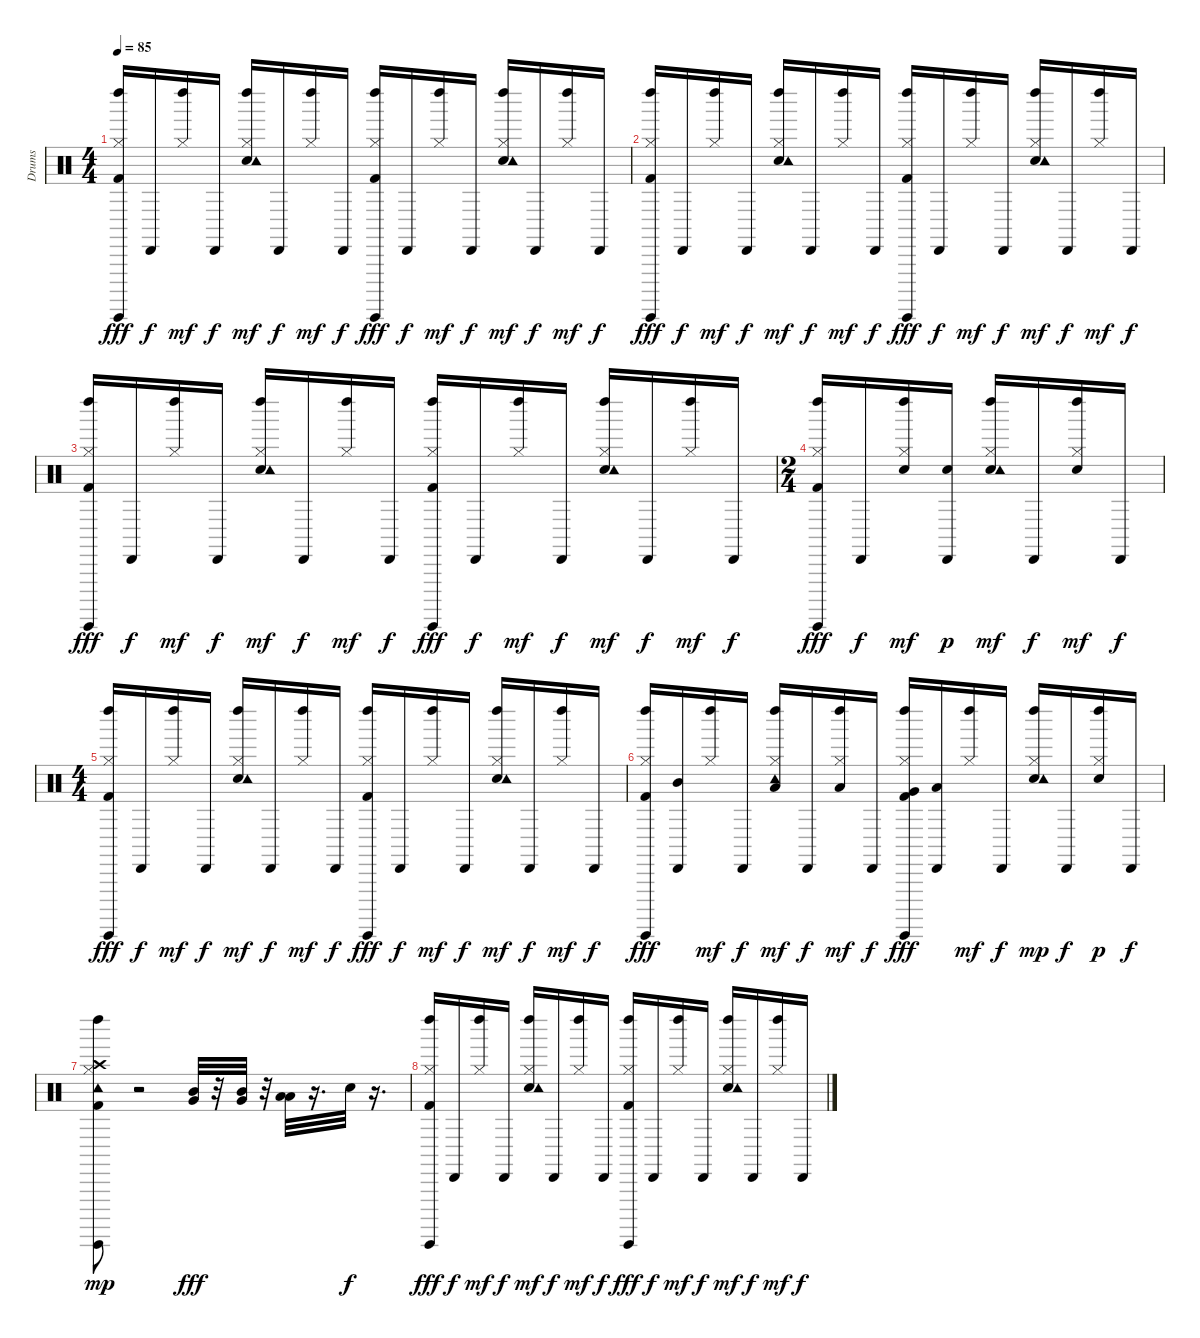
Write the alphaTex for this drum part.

\track ("Drums" "Drums") {instrument percussion}
\staff {score}
\articulation defaults
\ts (4 4)
\tempo 85
\clef neutral
\ks c
("Hi-Hat (closed)" "Kick (hit) 2" "Guiro (hit)" "Left Maraca (hit)").16{dy fff} "Cabasa (hit)".16{dy f} ("Hi-Hat (closed)" "Left Maraca (hit)").16{dy mf} "Cabasa (hit)".16{dy f} ("Hi-Hat (closed)" "Electric Snare (hit)" "Left Maraca (hit)" "Tambourine (hit)").16{dy mf} "Cabasa (hit)".16{dy f} ("Hi-Hat (closed)" "Left Maraca (hit)").16{dy mf} "Cabasa (hit)".16{dy f} ("Hi-Hat (closed)" "Kick (hit) 2" "Guiro (hit)" "Left Maraca (hit)").16{dy fff} "Cabasa (hit)".16{dy f} ("Hi-Hat (closed)" "Left Maraca (hit)").16{dy mf} "Cabasa (hit)".16{dy f} ("Hi-Hat (closed)" "Electric Snare (hit)" "Left Maraca (hit)" "Tambourine (hit)").16{dy mf} "Cabasa (hit)".16{dy f} ("Hi-Hat (closed)" "Left Maraca (hit)").16{dy mf} "Cabasa (hit)".16{dy f} |
("Hi-Hat (closed)" "Kick (hit) 2" "Guiro (hit)" "Left Maraca (hit)").16{dy fff} "Cabasa (hit)".16{dy f} ("Hi-Hat (closed)" "Left Maraca (hit)").16{dy mf} "Cabasa (hit)".16{dy f} ("Hi-Hat (closed)" "Electric Snare (hit)" "Left Maraca (hit)" "Tambourine (hit)").16{dy mf} "Cabasa (hit)".16{dy f} ("Hi-Hat (closed)" "Left Maraca (hit)").16{dy mf} "Cabasa (hit)".16{dy f} ("Hi-Hat (closed)" "Kick (hit) 2" "Guiro (hit)" "Left Maraca (hit)").16{dy fff} "Cabasa (hit)".16{dy f} ("Hi-Hat (closed)" "Left Maraca (hit)").16{dy mf} "Cabasa (hit)".16{dy f} ("Hi-Hat (closed)" "Electric Snare (hit)" "Left Maraca (hit)" "Tambourine (hit)").16{dy mf} "Cabasa (hit)".16{dy f} ("Hi-Hat (closed)" "Left Maraca (hit)").16{dy mf} "Cabasa (hit)".16{dy f} |
("Hi-Hat (closed)" "Kick (hit) 2" "Guiro (hit)" "Left Maraca (hit)").16{dy fff} "Cabasa (hit)".16{dy f} ("Hi-Hat (closed)" "Left Maraca (hit)").16{dy mf} "Cabasa (hit)".16{dy f} ("Hi-Hat (closed)" "Electric Snare (hit)" "Left Maraca (hit)" "Tambourine (hit)").16{dy mf} "Cabasa (hit)".16{dy f} ("Hi-Hat (closed)" "Left Maraca (hit)").16{dy mf} "Cabasa (hit)".16{dy f} ("Hi-Hat (closed)" "Kick (hit) 2" "Guiro (hit)" "Left Maraca (hit)").16{dy fff} "Cabasa (hit)".16{dy f} ("Hi-Hat (closed)" "Left Maraca (hit)").16{dy mf} "Cabasa (hit)".16{dy f} ("Hi-Hat (closed)" "Electric Snare (hit)" "Left Maraca (hit)" "Tambourine (hit)").16{dy mf} "Cabasa (hit)".16{dy f} ("Hi-Hat (closed)" "Left Maraca (hit)").16{dy mf} "Cabasa (hit)".16{dy f} |
\ts (2 4)
("Hi-Hat (closed)" "Kick (hit) 2" "Guiro (hit)" "Left Maraca (hit)").16{dy fff} "Cabasa (hit)".16{dy f} ("Snare (hit) 2" "Hi-Hat (closed)" "Left Maraca (hit)").16{dy mf} ("Electric Snare (hit)" "Cabasa (hit)").16{dy p} ("Hi-Hat (closed)" "Electric Snare (hit)" "Left Maraca (hit)" "Tambourine (hit)").16{dy mf} "Cabasa (hit)".16{dy f} ("Snare (hit) 2" "Hi-Hat (closed)" "Left Maraca (hit)").16{dy mf} "Cabasa (hit)".16{dy f} |
\ts (4 4)
("Hi-Hat (closed)" "Kick (hit) 2" "Guiro (hit)" "Left Maraca (hit)").16{dy fff} "Cabasa (hit)".16{dy f} ("Hi-Hat (closed)" "Left Maraca (hit)").16{dy mf} "Cabasa (hit)".16{dy f} ("Hi-Hat (closed)" "Electric Snare (hit)" "Left Maraca (hit)" "Tambourine (hit)").16{dy mf} "Cabasa (hit)".16{dy f} ("Hi-Hat (closed)" "Left Maraca (hit)").16{dy mf} "Cabasa (hit)".16{dy f} ("Hi-Hat (closed)" "Kick (hit) 2" "Guiro (hit)" "Left Maraca (hit)").16{dy fff} "Cabasa (hit)".16{dy f} ("Hi-Hat (closed)" "Left Maraca (hit)").16{dy mf} "Cabasa (hit)".16{dy f} ("Hi-Hat (closed)" "Electric Snare (hit)" "Left Maraca (hit)" "Tambourine (hit)").16{dy mf} "Cabasa (hit)".16{dy f} ("Hi-Hat (closed)" "Left Maraca (hit)").16{dy mf} "Cabasa (hit)".16{dy f} |
("Hi-Hat (closed)" "Kick (hit) 2" "Guiro (hit)" "Left Maraca (hit)").16{dy fff} ("Mid Tom (hit)" "Cabasa (hit)").16 ("Hi-Hat (closed)" "Left Maraca (hit)").16{dy mf} "Cabasa (hit)".16{dy f} ("Low Tom (hit)" "Hi-Hat (closed)" "Left Maraca (hit)" "Tambourine (hit)").16{dy mf} "Cabasa (hit)".16{dy f} ("Low Tom (hit)" "Hi-Hat (closed)" "Left Maraca (hit)").16{dy mf} "Cabasa (hit)".16{dy f} ("Very Low Tom (hit)" "Hi-Hat (closed)" "Kick (hit) 2" "Guiro (hit)" "Left Maraca (hit)").16{dy fff} ("Low Tom (hit)" "Cabasa (hit)").16 ("Hi-Hat (closed)" "Left Maraca (hit)").16{dy mf} "Cabasa (hit)".16{dy f} ("Hi-Hat (closed)" "Electric Snare (hit)" "Left Maraca (hit)" "Tambourine (hit)").16{dy mp} "Cabasa (hit)".16{dy f} ("Hi-Hat (closed)" "Snare (hit) 2" "Left Maraca (hit)").16{dy p} "Cabasa (hit)".16{dy f} |
("Crash high (hit)" "Hi-Hat (closed)" "Kick (hit) 2" "Tambourine (hit)" "Guiro (hit)" "Left Maraca (hit)").8{dy mp} r.2 ("Mid Tom (hit)" "Very Low Tom (hit)").32{dy fff} r.32 ("Mid Tom (hit)" "Very Low Tom (hit)").32 r.32 ("Low Tom (hit)" "Low Floor Tom (hit)").32 r.16{d} "Snare (hit) 2".32{dy f} r.16{d} |
("Hi-Hat (closed)" "Kick (hit) 2" "Guiro (hit)" "Left Maraca (hit)").16{dy fff} "Cabasa (hit)".16{dy f} ("Hi-Hat (closed)" "Left Maraca (hit)").16{dy mf} "Cabasa (hit)".16{dy f} ("Hi-Hat (closed)" "Electric Snare (hit)" "Left Maraca (hit)" "Tambourine (hit)").16{dy mf} "Cabasa (hit)".16{dy f} ("Hi-Hat (closed)" "Left Maraca (hit)").16{dy mf} "Cabasa (hit)".16{dy f} ("Hi-Hat (closed)" "Kick (hit) 2" "Guiro (hit)" "Left Maraca (hit)").16{dy fff} "Cabasa (hit)".16{dy f} ("Hi-Hat (closed)" "Left Maraca (hit)").16{dy mf} "Cabasa (hit)".16{dy f} ("Hi-Hat (closed)" "Electric Snare (hit)" "Left Maraca (hit)" "Tambourine (hit)").16{dy mf} "Cabasa (hit)".16{dy f} ("Hi-Hat (closed)" "Left Maraca (hit)").16{dy mf} "Cabasa (hit)".16{dy f}
